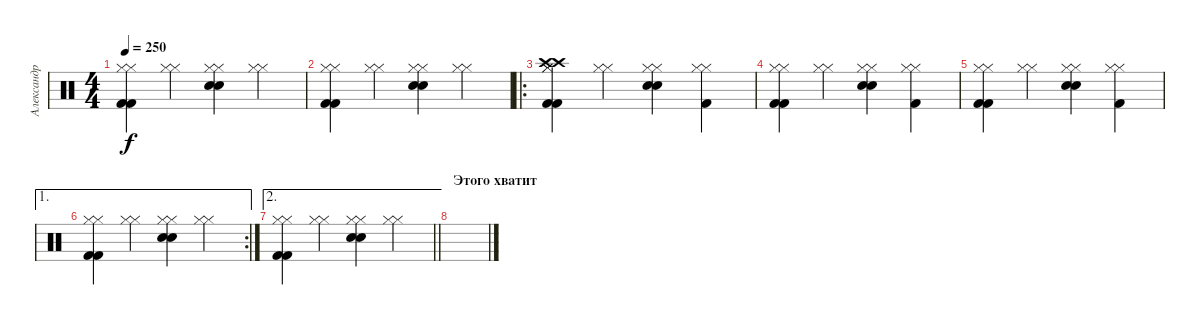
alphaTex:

\track ("Александр Андрюшкин" "Александр ") {instrument percussion}
\staff {score}
\articulation defaults
\ts (4 4)
\tempo 250
\clef neutral
\ks c
("Hi-Hat (closed)" "Hi-Hat (closed)" "Kick (hit) 2" "Kick (hit) 2").4{dy f} ("Hi-Hat (closed)" "Hi-Hat (closed)").4 ("Hi-Hat (closed)" "Hi-Hat (closed)" "Snare (hit) 2" "Snare (hit) 2").4 ("Hi-Hat (closed)" "Hi-Hat (closed)").4 |
("Hi-Hat (closed)" "Hi-Hat (closed)" "Kick (hit) 2" "Kick (hit) 2").4 ("Hi-Hat (closed)" "Hi-Hat (closed)").4 ("Hi-Hat (closed)" "Hi-Hat (closed)" "Snare (hit) 2" "Snare (hit) 2").4 ("Hi-Hat (closed)" "Hi-Hat (closed)").4 |
\ro
("Hi-Hat (closed)" "Hi-Hat (closed)" "Crash high (hit)" "Crash high (hit)" "Kick (hit) 2" "Kick (hit) 2").4 ("Hi-Hat (closed)" "Hi-Hat (closed)").4 ("Hi-Hat (closed)" "Hi-Hat (closed)" "Snare (hit) 2" "Snare (hit) 2").4 ("Hi-Hat (closed)" "Hi-Hat (closed)" "Kick (hit) 2").4 |
("Hi-Hat (closed)" "Hi-Hat (closed)" "Kick (hit) 2" "Kick (hit) 2").4 ("Hi-Hat (closed)" "Hi-Hat (closed)").4 ("Hi-Hat (closed)" "Hi-Hat (closed)" "Snare (hit) 2" "Snare (hit) 2").4 ("Hi-Hat (closed)" "Hi-Hat (closed)" "Kick (hit) 2").4 |
("Hi-Hat (closed)" "Hi-Hat (closed)" "Kick (hit) 2" "Kick (hit) 2").4 ("Hi-Hat (closed)" "Hi-Hat (closed)").4 ("Hi-Hat (closed)" "Hi-Hat (closed)" "Snare (hit) 2" "Snare (hit) 2").4 ("Hi-Hat (closed)" "Hi-Hat (closed)" "Kick (hit) 2").4 |
\ae 1
\rc 2
("Hi-Hat (closed)" "Hi-Hat (closed)" "Kick (hit) 2" "Kick (hit) 2").4 ("Hi-Hat (closed)" "Hi-Hat (closed)").4 ("Hi-Hat (closed)" "Hi-Hat (closed)" "Snare (hit) 2" "Snare (hit) 2").4 ("Hi-Hat (closed)" "Hi-Hat (closed)").4 |
\ae 2
\barLineRight lightlight
("Hi-Hat (closed)" "Hi-Hat (closed)" "Kick (hit) 2" "Kick (hit) 2").4 ("Hi-Hat (closed)" "Hi-Hat (closed)").4 ("Hi-Hat (closed)" "Hi-Hat (closed)" "Snare (hit) 2" "Snare (hit) 2").4 ("Hi-Hat (closed)" "Hi-Hat (closed)").4 |
\section ("" "Этого хватит")
